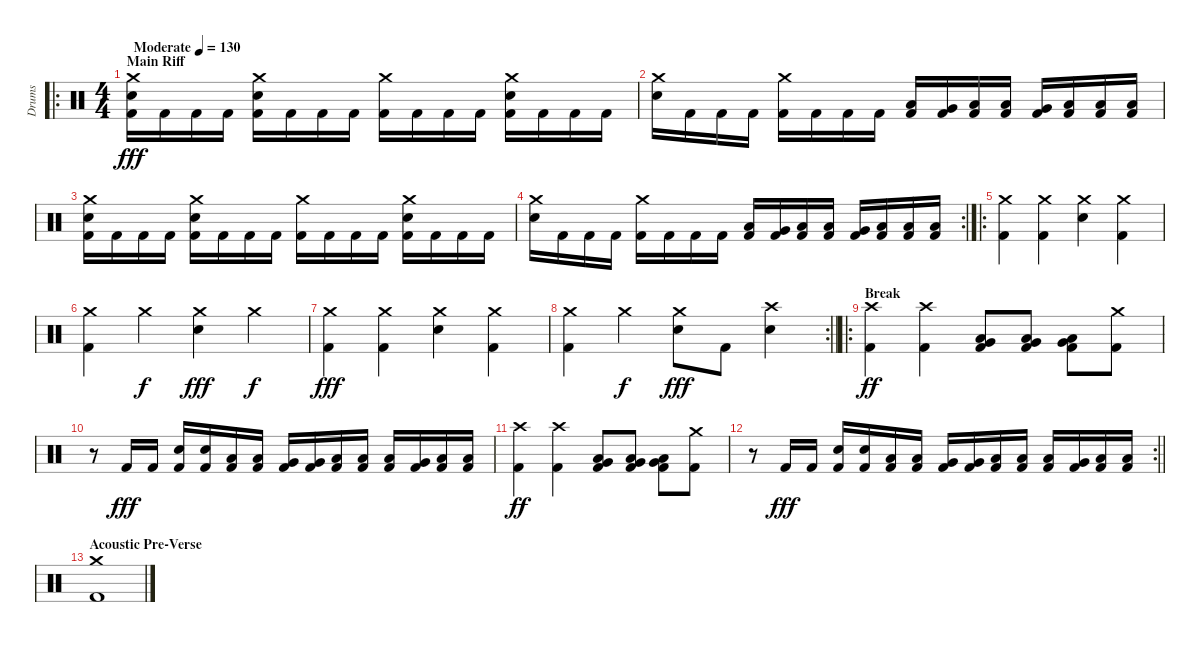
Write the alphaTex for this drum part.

\track ("Drums" "Drums") {instrument percussion}
\staff {score}
\articulation defaults
\ro
\ts (4 4)
\section ("" "Main Riff")
\tempo (130 "Moderate")
\clef neutral
\ks c
("Crash medium (hit)" "Electric Snare (hit)" "Kick (hit) 2").16{dy fff} "Kick (hit) 2".16 "Kick (hit) 2".16 "Kick (hit) 2".16 ("Crash medium (hit)" "Electric Snare (hit)" "Kick (hit) 2").16 "Kick (hit) 2".16 "Kick (hit) 2".16 "Kick (hit) 2".16 ("Crash medium (hit)" "Kick (hit) 2").16 "Kick (hit) 2".16 "Kick (hit) 2".16 "Kick (hit) 2".16 ("Crash medium (hit)" "Electric Snare (hit)" "Kick (hit) 2").16 "Kick (hit) 2".16 "Kick (hit) 2".16 "Kick (hit) 2".16 |
("Crash medium (hit)" "Electric Snare (hit)").16 "Kick (hit) 2".16 "Kick (hit) 2".16 "Kick (hit) 2".16 ("Crash medium (hit)" "Kick (hit) 2").16 "Kick (hit) 2".16 "Kick (hit) 2".16 "Kick (hit) 2".16 ("Low Tom (hit)" "Kick (hit) 2").16 ("Very Low Tom (hit)" "Kick (hit) 2").16 ("Low Floor Tom (hit)" "Kick (hit) 2").16 ("Low Tom (hit)" "Kick (hit) 2").16 ("Very Low Tom (hit)" "Kick (hit) 2").16 ("Low Tom (hit)" "Kick (hit) 2").16 ("Low Floor Tom (hit)" "Kick (hit) 2").16 ("Low Tom (hit)" "Kick (hit) 2").16 |
("Crash medium (hit)" "Electric Snare (hit)" "Kick (hit) 2").16 "Kick (hit) 2".16 "Kick (hit) 2".16 "Kick (hit) 2".16 ("Crash medium (hit)" "Electric Snare (hit)" "Kick (hit) 2").16 "Kick (hit) 2".16 "Kick (hit) 2".16 "Kick (hit) 2".16 ("Crash medium (hit)" "Kick (hit) 2").16 "Kick (hit) 2".16 "Kick (hit) 2".16 "Kick (hit) 2".16 ("Crash medium (hit)" "Electric Snare (hit)" "Kick (hit) 2").16 "Kick (hit) 2".16 "Kick (hit) 2".16 "Kick (hit) 2".16 |
\rc 2
("Crash medium (hit)" "Electric Snare (hit)").16 "Kick (hit) 2".16 "Kick (hit) 2".16 "Kick (hit) 2".16 ("Crash medium (hit)" "Kick (hit) 2").16 "Kick (hit) 2".16 "Kick (hit) 2".16 "Kick (hit) 2".16 ("Low Tom (hit)" "Kick (hit) 2").16 ("Very Low Tom (hit)" "Kick (hit) 2").16 ("Low Floor Tom (hit)" "Kick (hit) 2").16 ("Low Tom (hit)" "Kick (hit) 2").16 ("Very Low Tom (hit)" "Kick (hit) 2").16 ("Low Tom (hit)" "Kick (hit) 2").16 ("Low Floor Tom (hit)" "Kick (hit) 2").16 ("Low Tom (hit)" "Kick (hit) 2").16 |
\ro
("Crash medium (hit)" "Kick (hit) 2").4 ("Crash medium (hit)" "Kick (hit) 2").4 ("Crash medium (hit)" "Electric Snare (hit)").4 ("Crash medium (hit)" "Kick (hit) 2").4 |
("Crash medium (hit)" "Kick (hit) 2").4 "Crash medium (hit)".4{dy f} ("Crash medium (hit)" "Electric Snare (hit)").4{dy fff} "Crash medium (hit)".4{dy f} |
("Crash medium (hit)" "Kick (hit) 2").4{dy fff} ("Crash medium (hit)" "Kick (hit) 2").4 ("Crash medium (hit)" "Electric Snare (hit)").4 ("Crash medium (hit)" "Kick (hit) 2").4 |
\rc 2
\barLineRight lightlight
("Crash medium (hit)" "Kick (hit) 2").4 "Crash medium (hit)".4{dy f} ("Crash medium (hit)" "Electric Snare (hit)").8{dy fff} "Kick (hit) 2".8 ("Crash high (hit)" "Electric Snare (hit)").4 |
\ro
\section ("" "Break")
("Crash high (hit)" "Kick (hit) 2").4{dy ff} ("Crash high (hit)" "Kick (hit) 2").4 ("Very Low Tom (hit)" "Low Tom (hit)" "Kick (hit) 2").8 ("Low Tom (hit)" "Very Low Tom (hit)" "Kick (hit) 2").8 ("Very Low Tom (hit)" "Low Floor Tom (hit)" "Kick (hit) 2").8 ("Crash medium (hit)" "Kick (hit) 2").8 |
r.8 "Kick (hit) 2".16{dy fff} "Kick (hit) 2".16 ("Electric Snare (hit)" "Kick (hit) 2").16 ("Electric Snare (hit)" "Kick (hit) 2").16 ("Low Tom (hit)" "Kick (hit) 2").16 ("Low Tom (hit)" "Kick (hit) 2").16 ("Very Low Tom (hit)" "Kick (hit) 2").16 ("Very Low Tom (hit)" "Kick (hit) 2").16 ("Low Floor Tom (hit)" "Kick (hit) 2").16 ("Low Floor Tom (hit)" "Kick (hit) 2").16 ("Low Tom (hit)" "Kick (hit) 2").16 ("Very Low Tom (hit)" "Kick (hit) 2").16 ("Low Tom (hit)" "Kick (hit) 2").16 ("Low Floor Tom (hit)" "Kick (hit) 2").16 |
("Crash high (hit)" "Kick (hit) 2").4{dy ff} ("Crash high (hit)" "Kick (hit) 2").4 ("Very Low Tom (hit)" "Low Tom (hit)" "Kick (hit) 2").8 ("Low Tom (hit)" "Very Low Tom (hit)" "Kick (hit) 2").8 ("Very Low Tom (hit)" "Low Floor Tom (hit)" "Kick (hit) 2").8 ("Crash medium (hit)" "Kick (hit) 2").8 |
\rc 2
\barLineRight lightlight
r.8 "Kick (hit) 2".16{dy fff} "Kick (hit) 2".16 ("Electric Snare (hit)" "Kick (hit) 2").16 ("Electric Snare (hit)" "Kick (hit) 2").16 ("Low Tom (hit)" "Kick (hit) 2").16 ("Low Tom (hit)" "Kick (hit) 2").16 ("Very Low Tom (hit)" "Kick (hit) 2").16 ("Very Low Tom (hit)" "Kick (hit) 2").16 ("Low Floor Tom (hit)" "Kick (hit) 2").16 ("Low Floor Tom (hit)" "Kick (hit) 2").16 ("Low Tom (hit)" "Kick (hit) 2").16 ("Very Low Tom (hit)" "Kick (hit) 2").16 ("Low Tom (hit)" "Kick (hit) 2").16 ("Low Floor Tom (hit)" "Kick (hit) 2").16 |
\section ("" "Acoustic Pre-Verse")
("Crash medium (hit)" "Kick (hit) 2").1
